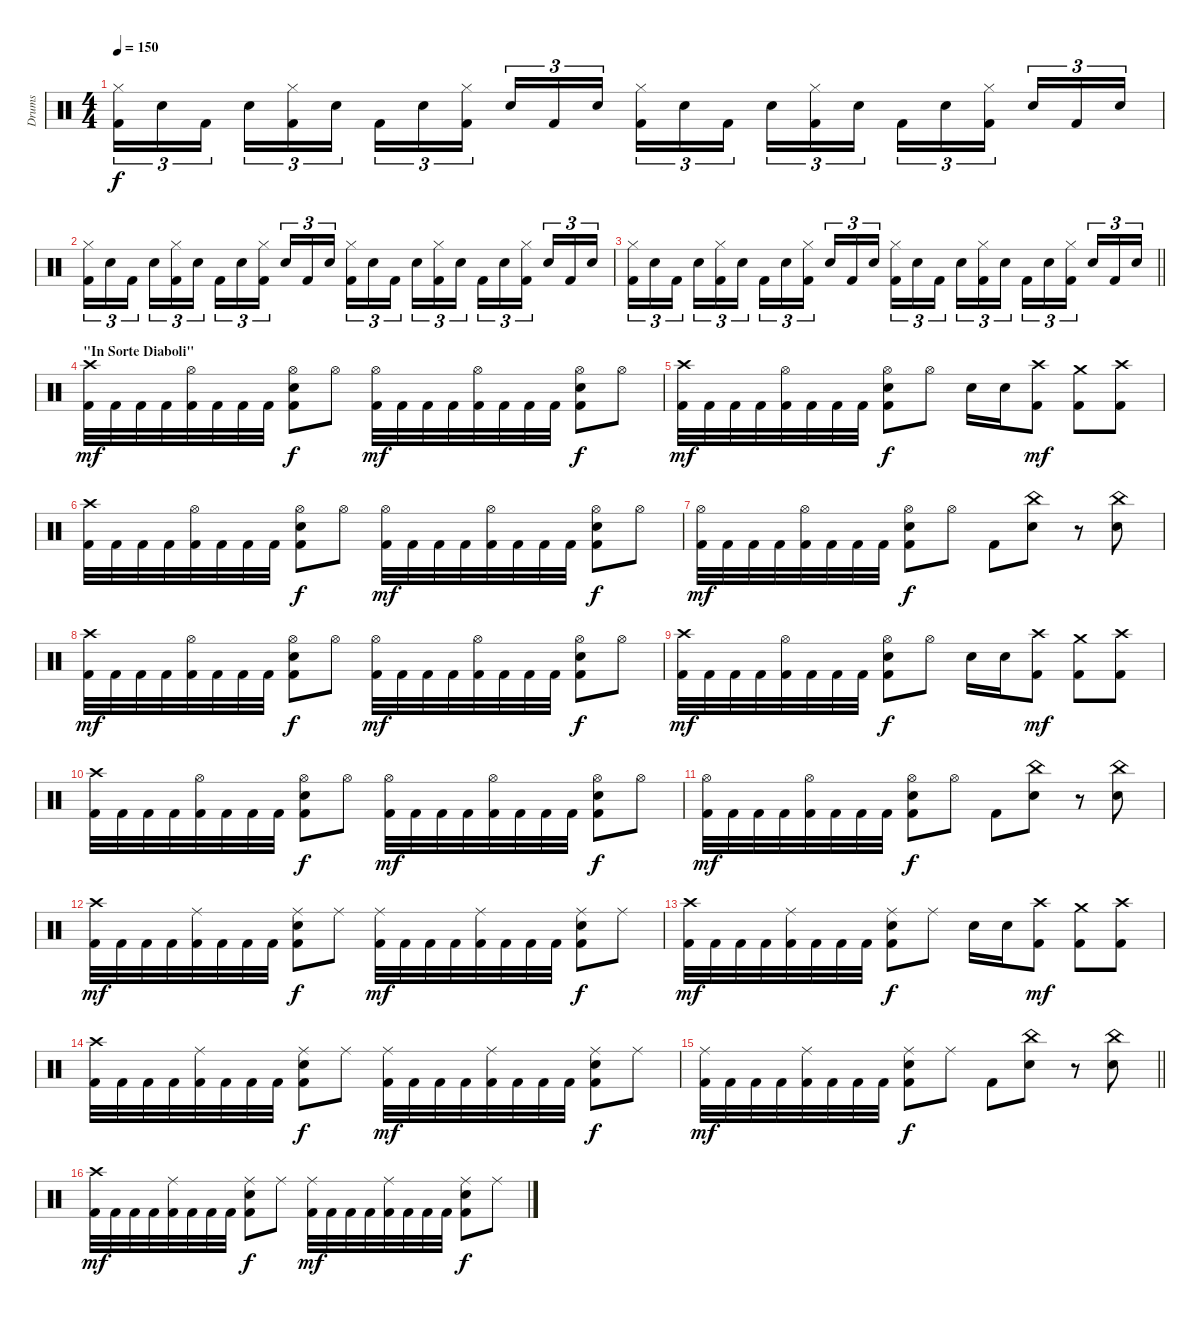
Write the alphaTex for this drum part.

\track ("Drums" "Drums") {instrument percussion}
\staff {score}
\articulation defaults
\ts (4 4)
\tempo 150
\clef neutral
\ks c
("Hi-Hat (closed)" "Kick (hit) 2").16{tu (3 2) dy f} "Electric Snare (hit)".16{tu (3 2)} "Kick (hit) 2".16{tu (3 2)} "Electric Snare (hit)".16{tu (3 2)} ("Hi-Hat (closed)" "Kick (hit) 2").16{tu (3 2)} "Electric Snare (hit)".16{tu (3 2)} "Kick (hit) 2".16{tu (3 2)} "Electric Snare (hit)".16{tu (3 2)} ("Hi-Hat (closed)" "Kick (hit) 2").16{tu (3 2)} "Electric Snare (hit)".16{tu (3 2)} "Kick (hit) 2".16{tu (3 2)} "Electric Snare (hit)".16{tu (3 2)} ("Hi-Hat (closed)" "Kick (hit) 2").16{tu (3 2)} "Electric Snare (hit)".16{tu (3 2)} "Kick (hit) 2".16{tu (3 2)} "Electric Snare (hit)".16{tu (3 2)} ("Hi-Hat (closed)" "Kick (hit) 2").16{tu (3 2)} "Electric Snare (hit)".16{tu (3 2)} "Kick (hit) 2".16{tu (3 2)} "Electric Snare (hit)".16{tu (3 2)} ("Hi-Hat (closed)" "Kick (hit) 2").16{tu (3 2)} "Electric Snare (hit)".16{tu (3 2)} "Kick (hit) 2".16{tu (3 2)} "Electric Snare (hit)".16{tu (3 2)} |
("Hi-Hat (closed)" "Kick (hit) 2").16{tu (3 2)} "Electric Snare (hit)".16{tu (3 2)} "Kick (hit) 2".16{tu (3 2)} "Electric Snare (hit)".16{tu (3 2)} ("Hi-Hat (closed)" "Kick (hit) 2").16{tu (3 2)} "Electric Snare (hit)".16{tu (3 2)} "Kick (hit) 2".16{tu (3 2)} "Electric Snare (hit)".16{tu (3 2)} ("Hi-Hat (closed)" "Kick (hit) 2").16{tu (3 2)} "Electric Snare (hit)".16{tu (3 2)} "Kick (hit) 2".16{tu (3 2)} "Electric Snare (hit)".16{tu (3 2)} ("Hi-Hat (closed)" "Kick (hit) 2").16{tu (3 2)} "Electric Snare (hit)".16{tu (3 2)} "Kick (hit) 2".16{tu (3 2)} "Electric Snare (hit)".16{tu (3 2)} ("Hi-Hat (closed)" "Kick (hit) 2").16{tu (3 2)} "Electric Snare (hit)".16{tu (3 2)} "Kick (hit) 2".16{tu (3 2)} "Electric Snare (hit)".16{tu (3 2)} ("Hi-Hat (closed)" "Kick (hit) 2").16{tu (3 2)} "Electric Snare (hit)".16{tu (3 2)} "Kick (hit) 2".16{tu (3 2)} "Electric Snare (hit)".16{tu (3 2)} |
\barLineRight lightlight
("Hi-Hat (closed)" "Kick (hit) 2").16{tu (3 2)} "Electric Snare (hit)".16{tu (3 2)} "Kick (hit) 2".16{tu (3 2)} "Electric Snare (hit)".16{tu (3 2)} ("Hi-Hat (closed)" "Kick (hit) 2").16{tu (3 2)} "Electric Snare (hit)".16{tu (3 2)} "Kick (hit) 2".16{tu (3 2)} "Electric Snare (hit)".16{tu (3 2)} ("Hi-Hat (closed)" "Kick (hit) 2").16{tu (3 2)} "Electric Snare (hit)".16{tu (3 2)} "Kick (hit) 2".16{tu (3 2)} "Electric Snare (hit)".16{tu (3 2)} ("Hi-Hat (closed)" "Kick (hit) 2").16{tu (3 2)} "Electric Snare (hit)".16{tu (3 2)} "Kick (hit) 2".16{tu (3 2)} "Electric Snare (hit)".16{tu (3 2)} ("Hi-Hat (closed)" "Kick (hit) 2").16{tu (3 2)} "Electric Snare (hit)".16{tu (3 2)} "Kick (hit) 2".16{tu (3 2)} "Electric Snare (hit)".16{tu (3 2)} ("Hi-Hat (closed)" "Kick (hit) 2").16{tu (3 2)} "Electric Snare (hit)".16{tu (3 2)} "Kick (hit) 2".16{tu (3 2)} "Electric Snare (hit)".16{tu (3 2)} |
\section ("" "\"In Sorte Diaboli\"")
("Crash high (hit)" "Kick (hit) 2").32{dy mf} "Kick (hit) 2".32 "Kick (hit) 2".32 "Kick (hit) 2".32 ("Hi-Hat (open)" "Kick (hit) 2").32 "Kick (hit) 2".32 "Kick (hit) 2".32 "Kick (hit) 2".32 ("Hi-Hat (open)" "Electric Snare (hit)" "Kick (hit) 2").8{dy f} "Hi-Hat (open)".8 ("Hi-Hat (open)" "Kick (hit) 2").32{dy mf} "Kick (hit) 2".32 "Kick (hit) 2".32 "Kick (hit) 2".32 ("Hi-Hat (open)" "Kick (hit) 2").32 "Kick (hit) 2".32 "Kick (hit) 2".32 "Kick (hit) 2".32 ("Hi-Hat (open)" "Electric Snare (hit)" "Kick (hit) 2").8{dy f} "Hi-Hat (open)".8 |
("Crash high (hit)" "Kick (hit) 2").32{dy mf} "Kick (hit) 2".32 "Kick (hit) 2".32 "Kick (hit) 2".32 ("Hi-Hat (open)" "Kick (hit) 2").32 "Kick (hit) 2".32 "Kick (hit) 2".32 "Kick (hit) 2".32 ("Hi-Hat (open)" "Electric Snare (hit)" "Kick (hit) 2").8{dy f} "Hi-Hat (open)".8 "Electric Snare (hit)".16 "Electric Snare (hit)".16 ("Crash high (hit)" "Kick (hit) 2").8{dy mf} ("Crash medium (hit)" "Kick (hit) 2").8 ("Crash high (hit)" "Kick (hit) 2").8 |
("Crash high (hit)" "Kick (hit) 2").32 "Kick (hit) 2".32 "Kick (hit) 2".32 "Kick (hit) 2".32 ("Hi-Hat (open)" "Kick (hit) 2").32 "Kick (hit) 2".32 "Kick (hit) 2".32 "Kick (hit) 2".32 ("Hi-Hat (open)" "Electric Snare (hit)" "Kick (hit) 2").8{dy f} "Hi-Hat (open)".8 ("Hi-Hat (open)" "Kick (hit) 2").32{dy mf} "Kick (hit) 2".32 "Kick (hit) 2".32 "Kick (hit) 2".32 ("Hi-Hat (open)" "Kick (hit) 2").32 "Kick (hit) 2".32 "Kick (hit) 2".32 "Kick (hit) 2".32 ("Hi-Hat (open)" "Electric Snare (hit)" "Kick (hit) 2").8{dy f} "Hi-Hat (open)".8 |
("Hi-Hat (open)" "Kick (hit) 2").32{dy mf} "Kick (hit) 2".32 "Kick (hit) 2".32 "Kick (hit) 2".32 ("Hi-Hat (open)" "Kick (hit) 2").32 "Kick (hit) 2".32 "Kick (hit) 2".32 "Kick (hit) 2".32 ("Hi-Hat (open)" "Electric Snare (hit)" "Kick (hit) 2").8{dy f} "Hi-Hat (open)".8 "Kick (hit) 2".8 ("China (hit)" "Electric Snare (hit)").8 r.8 ("China (hit)" "Electric Snare (hit)").8 |
("Crash high (hit)" "Kick (hit) 2").32{dy mf} "Kick (hit) 2".32 "Kick (hit) 2".32 "Kick (hit) 2".32 ("Hi-Hat (open)" "Kick (hit) 2").32 "Kick (hit) 2".32 "Kick (hit) 2".32 "Kick (hit) 2".32 ("Hi-Hat (open)" "Electric Snare (hit)" "Kick (hit) 2").8{dy f} "Hi-Hat (open)".8 ("Hi-Hat (open)" "Kick (hit) 2").32{dy mf} "Kick (hit) 2".32 "Kick (hit) 2".32 "Kick (hit) 2".32 ("Hi-Hat (open)" "Kick (hit) 2").32 "Kick (hit) 2".32 "Kick (hit) 2".32 "Kick (hit) 2".32 ("Hi-Hat (open)" "Electric Snare (hit)" "Kick (hit) 2").8{dy f} "Hi-Hat (open)".8 |
("Crash high (hit)" "Kick (hit) 2").32{dy mf} "Kick (hit) 2".32 "Kick (hit) 2".32 "Kick (hit) 2".32 ("Hi-Hat (open)" "Kick (hit) 2").32 "Kick (hit) 2".32 "Kick (hit) 2".32 "Kick (hit) 2".32 ("Hi-Hat (open)" "Electric Snare (hit)" "Kick (hit) 2").8{dy f} "Hi-Hat (open)".8 "Electric Snare (hit)".16 "Electric Snare (hit)".16 ("Crash high (hit)" "Kick (hit) 2").8{dy mf} ("Crash medium (hit)" "Kick (hit) 2").8 ("Crash high (hit)" "Kick (hit) 2").8 |
("Crash high (hit)" "Kick (hit) 2").32 "Kick (hit) 2".32 "Kick (hit) 2".32 "Kick (hit) 2".32 ("Hi-Hat (open)" "Kick (hit) 2").32 "Kick (hit) 2".32 "Kick (hit) 2".32 "Kick (hit) 2".32 ("Hi-Hat (open)" "Electric Snare (hit)" "Kick (hit) 2").8{dy f} "Hi-Hat (open)".8 ("Hi-Hat (open)" "Kick (hit) 2").32{dy mf} "Kick (hit) 2".32 "Kick (hit) 2".32 "Kick (hit) 2".32 ("Hi-Hat (open)" "Kick (hit) 2").32 "Kick (hit) 2".32 "Kick (hit) 2".32 "Kick (hit) 2".32 ("Hi-Hat (open)" "Electric Snare (hit)" "Kick (hit) 2").8{dy f} "Hi-Hat (open)".8 |
("Hi-Hat (open)" "Kick (hit) 2").32{dy mf} "Kick (hit) 2".32 "Kick (hit) 2".32 "Kick (hit) 2".32 ("Hi-Hat (open)" "Kick (hit) 2").32 "Kick (hit) 2".32 "Kick (hit) 2".32 "Kick (hit) 2".32 ("Hi-Hat (open)" "Electric Snare (hit)" "Kick (hit) 2").8{dy f} "Hi-Hat (open)".8 "Kick (hit) 2".8 ("China (hit)" "Electric Snare (hit)").8 r.8 ("China (hit)" "Electric Snare (hit)").8 |
("Crash high (hit)" "Kick (hit) 2").32{dy mf} "Kick (hit) 2".32 "Kick (hit) 2".32 "Kick (hit) 2".32 ("Ride (middle)" "Kick (hit) 2").32 "Kick (hit) 2".32 "Kick (hit) 2".32 "Kick (hit) 2".32 ("Ride (middle)" "Electric Snare (hit)" "Kick (hit) 2").8{dy f} "Ride (middle)".8 ("Ride (middle)" "Kick (hit) 2").32{dy mf} "Kick (hit) 2".32 "Kick (hit) 2".32 "Kick (hit) 2".32 ("Ride (middle)" "Kick (hit) 2").32 "Kick (hit) 2".32 "Kick (hit) 2".32 "Kick (hit) 2".32 ("Ride (middle)" "Electric Snare (hit)" "Kick (hit) 2").8{dy f} "Ride (middle)".8 |
("Crash high (hit)" "Kick (hit) 2").32{dy mf} "Kick (hit) 2".32 "Kick (hit) 2".32 "Kick (hit) 2".32 ("Ride (middle)" "Kick (hit) 2").32 "Kick (hit) 2".32 "Kick (hit) 2".32 "Kick (hit) 2".32 ("Ride (middle)" "Electric Snare (hit)" "Kick (hit) 2").8{dy f} "Ride (middle)".8 "Electric Snare (hit)".16 "Electric Snare (hit)".16 ("Crash high (hit)" "Kick (hit) 2").8{dy mf} ("Crash medium (hit)" "Kick (hit) 2").8 ("Crash high (hit)" "Kick (hit) 2").8 |
("Crash high (hit)" "Kick (hit) 2").32 "Kick (hit) 2".32 "Kick (hit) 2".32 "Kick (hit) 2".32 ("Ride (middle)" "Kick (hit) 2").32 "Kick (hit) 2".32 "Kick (hit) 2".32 "Kick (hit) 2".32 ("Ride (middle)" "Electric Snare (hit)" "Kick (hit) 2").8{dy f} "Ride (middle)".8 ("Ride (middle)" "Kick (hit) 2").32{dy mf} "Kick (hit) 2".32 "Kick (hit) 2".32 "Kick (hit) 2".32 ("Ride (middle)" "Kick (hit) 2").32 "Kick (hit) 2".32 "Kick (hit) 2".32 "Kick (hit) 2".32 ("Ride (middle)" "Electric Snare (hit)" "Kick (hit) 2").8{dy f} "Ride (middle)".8 |
\barLineRight lightlight
("Ride (middle)" "Kick (hit) 2").32{dy mf} "Kick (hit) 2".32 "Kick (hit) 2".32 "Kick (hit) 2".32 ("Ride (middle)" "Kick (hit) 2").32 "Kick (hit) 2".32 "Kick (hit) 2".32 "Kick (hit) 2".32 ("Ride (middle)" "Electric Snare (hit)" "Kick (hit) 2").8{dy f} "Ride (middle)".8 "Kick (hit) 2".8 ("China (hit)" "Electric Snare (hit)").8 r.8 ("China (hit)" "Electric Snare (hit)").8 |
("Crash high (hit)" "Kick (hit) 2").32{dy mf} "Kick (hit) 2".32 "Kick (hit) 2".32 "Kick (hit) 2".32 ("Ride (middle)" "Kick (hit) 2").32 "Kick (hit) 2".32 "Kick (hit) 2".32 "Kick (hit) 2".32 ("Ride (middle)" "Electric Snare (hit)" "Kick (hit) 2").8{dy f} "Ride (middle)".8 ("Ride (middle)" "Kick (hit) 2").32{dy mf} "Kick (hit) 2".32 "Kick (hit) 2".32 "Kick (hit) 2".32 ("Ride (middle)" "Kick (hit) 2").32 "Kick (hit) 2".32 "Kick (hit) 2".32 "Kick (hit) 2".32 ("Ride (middle)" "Electric Snare (hit)" "Kick (hit) 2").8{dy f} "Ride (middle)".8
